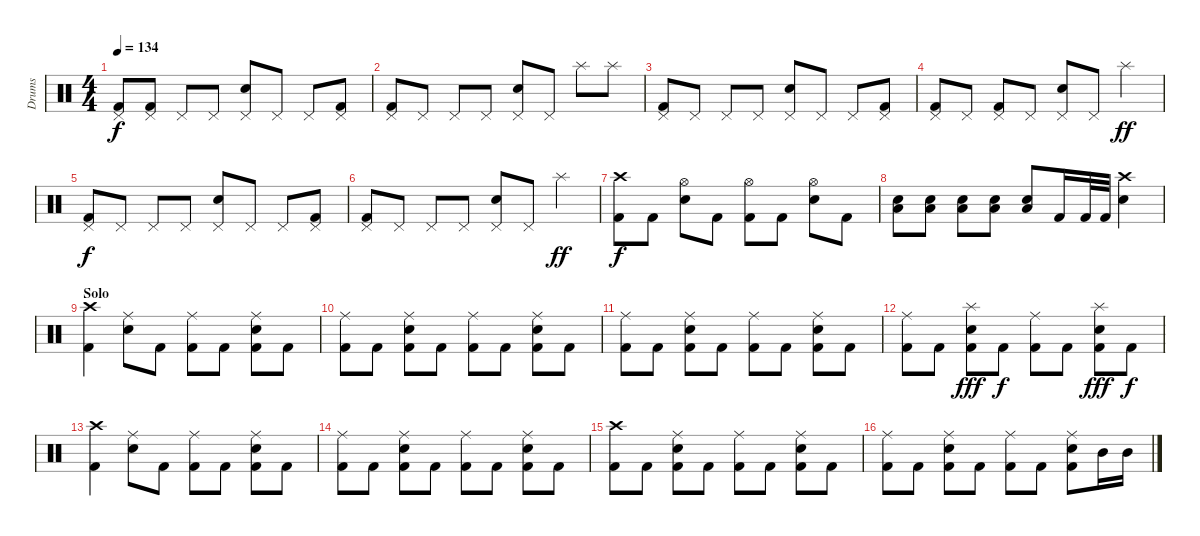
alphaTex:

\track ("Drums" "Drums") {instrument percussion}
\staff {score}
\articulation defaults
\ts (4 4)
\section ("" "")
\tempo 134
\clef neutral
\ks c
("Pedal Hi-Hat (hit)" "Kick (hit) 2").8{dy f} ("Pedal Hi-Hat (hit)" "Kick (hit) 2").8 "Pedal Hi-Hat (hit)".8 "Pedal Hi-Hat (hit)".8 ("Pedal Hi-Hat (hit)" "Snare (hit) 2").8 "Pedal Hi-Hat (hit)".8 "Pedal Hi-Hat (hit)".8 ("Pedal Hi-Hat (hit)" "Kick (hit) 2").8 |
("Pedal Hi-Hat (hit)" "Kick (hit) 2").8 "Pedal Hi-Hat (hit)".8 "Pedal Hi-Hat (hit)".8 "Pedal Hi-Hat (hit)".8 ("Pedal Hi-Hat (hit)" "Snare (hit) 2").8 "Pedal Hi-Hat (hit)".8 "Splash (hit)".8 "Splash (hit)".8 |
("Pedal Hi-Hat (hit)" "Kick (hit) 2").8 "Pedal Hi-Hat (hit)".8 "Pedal Hi-Hat (hit)".8 "Pedal Hi-Hat (hit)".8 ("Pedal Hi-Hat (hit)" "Snare (hit) 2").8 "Pedal Hi-Hat (hit)".8 "Pedal Hi-Hat (hit)".8 ("Pedal Hi-Hat (hit)" "Kick (hit) 2").8 |
("Pedal Hi-Hat (hit)" "Kick (hit) 2").8 "Pedal Hi-Hat (hit)".8 ("Pedal Hi-Hat (hit)" "Kick (hit) 2").8 "Pedal Hi-Hat (hit)".8 ("Pedal Hi-Hat (hit)" "Snare (hit) 2").8 "Pedal Hi-Hat (hit)".8 "Splash (hit)".4{dy ff} |
("Pedal Hi-Hat (hit)" "Kick (hit) 2").8{dy f} "Pedal Hi-Hat (hit)".8 "Pedal Hi-Hat (hit)".8 "Pedal Hi-Hat (hit)".8 ("Pedal Hi-Hat (hit)" "Snare (hit) 2").8 "Pedal Hi-Hat (hit)".8 "Pedal Hi-Hat (hit)".8 ("Pedal Hi-Hat (hit)" "Kick (hit) 2").8 |
("Pedal Hi-Hat (hit)" "Kick (hit) 2").8 "Pedal Hi-Hat (hit)".8 "Pedal Hi-Hat (hit)".8 "Pedal Hi-Hat (hit)".8 ("Pedal Hi-Hat (hit)" "Snare (hit) 2").8 "Pedal Hi-Hat (hit)".8 "Splash (hit)".4{dy ff} |
("Crash high (hit)" "Kick (hit) 2").8{dy f} "Kick (hit) 2".8 ("Hi-Hat (open)" "Snare (hit) 2").8 "Kick (hit) 2".8 ("Hi-Hat (open)" "Kick (hit) 2").8 "Kick (hit) 2".8 ("Hi-Hat (open)" "Snare (hit) 2").8 "Kick (hit) 2".8 |
("Low Tom (hit)" "Snare (hit) 2").8 ("Low Tom (hit)" "Snare (hit) 2").8 ("Low Tom (hit)" "Snare (hit) 2").8 ("Low Tom (hit)" "Snare (hit) 2").8 ("Low Tom (hit)" "Snare (hit) 2").8 "Kick (hit) 2".16 "Kick (hit) 2".32 "Kick (hit) 2".32 ("Crash high (hit)" "Snare (hit) 2").4 |
\section ("" "Solo")
("Crash high (hit)" "Kick (hit) 2").4 ("Ride (middle)" "Snare (hit) 2").8 "Kick (hit) 2".8 ("Ride (middle)" "Kick (hit) 2").8 "Kick (hit) 2".8 ("Ride (middle)" "Snare (hit) 2" "Kick (hit) 2").8 "Kick (hit) 2".8 |
("Ride (middle)" "Kick (hit) 2").8 "Kick (hit) 2".8 ("Ride (middle)" "Snare (hit) 2" "Kick (hit) 2").8 "Kick (hit) 2".8 ("Ride (middle)" "Kick (hit) 2").8 "Kick (hit) 2".8 ("Ride (middle)" "Snare (hit) 2" "Kick (hit) 2").8 "Kick (hit) 2".8 |
("Ride (middle)" "Kick (hit) 2").8 "Kick (hit) 2".8 ("Ride (middle)" "Snare (hit) 2" "Kick (hit) 2").8 "Kick (hit) 2".8 ("Ride (middle)" "Kick (hit) 2").8 "Kick (hit) 2".8 ("Ride (middle)" "Snare (hit) 2" "Kick (hit) 2").8 "Kick (hit) 2".8 |
("Ride (middle)" "Kick (hit) 2").8 "Kick (hit) 2".8 ("Splash (hit)" "Snare (hit) 2" "Kick (hit) 2").8{dy fff} "Kick (hit) 2".8{dy f} ("Ride (middle)" "Kick (hit) 2").8 "Kick (hit) 2".8 ("Splash (hit)" "Snare (hit) 2" "Kick (hit) 2").8{dy fff} "Kick (hit) 2".8{dy f} |
("Crash high (hit)" "Kick (hit) 2").4 ("Ride (middle)" "Snare (hit) 2").8 "Kick (hit) 2".8 ("Ride (middle)" "Kick (hit) 2").8 "Kick (hit) 2".8 ("Ride (middle)" "Snare (hit) 2" "Kick (hit) 2").8 "Kick (hit) 2".8 |
("Ride (middle)" "Kick (hit) 2").8 "Kick (hit) 2".8 ("Ride (middle)" "Snare (hit) 2" "Kick (hit) 2").8 "Kick (hit) 2".8 ("Ride (middle)" "Kick (hit) 2").8 "Kick (hit) 2".8 ("Ride (middle)" "Snare (hit) 2" "Kick (hit) 2").8 "Kick (hit) 2".8 |
("Crash high (hit)" "Kick (hit) 2").8 "Kick (hit) 2".8 ("Ride (middle)" "Snare (hit) 2" "Kick (hit) 2").8 "Kick (hit) 2".8 ("Ride (middle)" "Kick (hit) 2").8 "Kick (hit) 2".8 ("Ride (middle)" "Snare (hit) 2" "Kick (hit) 2").8 "Kick (hit) 2".8 |
("Ride (middle)" "Kick (hit) 2").8 "Kick (hit) 2".8 ("Ride (middle)" "Snare (hit) 2" "Kick (hit) 2").8 "Kick (hit) 2".8 ("Ride (middle)" "Kick (hit) 2").8 "Kick (hit) 2".8 ("Ride (middle)" "Snare (hit) 2" "Kick (hit) 2").8 "Mid Tom (hit)".16 "Mid Tom (hit)".16
